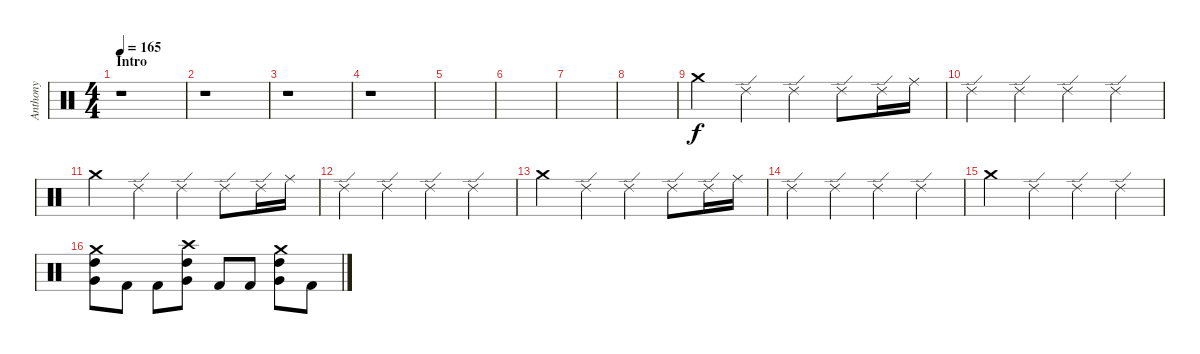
\track ("Anthony" "Anthony") {instrument percussion}
\staff {score}
\articulation defaults
\ts (4 4)
\section ("" "Intro")
\tempo 165
\clef neutral
\ks c
r.1{dy f} |
r.1 |
r.1 |
r.1 |
|
|
|
|
"Crash medium (hit)".4 "Ride (edge) 2".4 "Ride (edge) 2".4 "Ride (edge) 2".8 "Ride (edge) 2".16 "Ride (middle)".16 |
"Ride (edge) 2".4 "Ride (edge) 2".4 "Ride (edge) 2".4 "Ride (edge) 2".4 |
"Crash medium (hit)".4 "Ride (edge) 2".4 "Ride (edge) 2".4 "Ride (edge) 2".8 "Ride (edge) 2".16 "Ride (middle)".16 |
"Ride (edge) 2".4 "Ride (edge) 2".4 "Ride (edge) 2".4 "Ride (edge) 2".4 |
"Crash medium (hit)".4 "Ride (edge) 2".4 "Ride (edge) 2".4 "Ride (edge) 2".8 "Ride (edge) 2".16 "Ride (middle)".16 |
"Ride (edge) 2".4 "Ride (edge) 2".4 "Ride (edge) 2".4 "Ride (edge) 2".4 |
"Crash medium (hit)".4 "Ride (edge) 2".4 "Ride (edge) 2".4 "Ride (edge) 2".4 |
("High Tom (hit)" "Very Low Tom (hit)" "Crash medium (hit)").8 "Kick (hit) 2".8 "Kick (hit) 2".8 ("High Tom (hit)" "Very Low Tom (hit)" "Crash high (hit)").8 "Kick (hit) 2".8 "Kick (hit) 2".8 ("High Tom (hit)" "Very Low Tom (hit)" "Crash medium (hit)").8 "Kick (hit) 2".8
